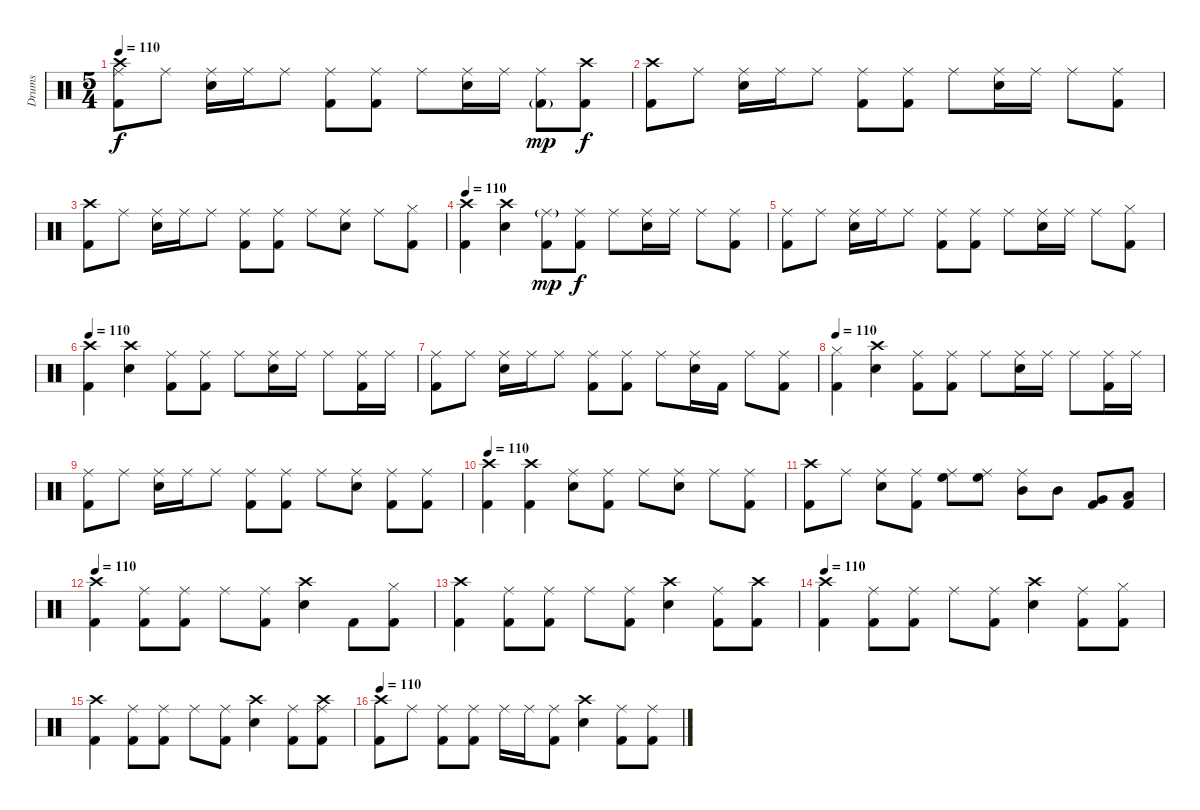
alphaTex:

\track ("Drums" "Drums") {instrument percussion}
\staff {score}
\articulation defaults
\ts (5 4)
\tempo 110
\clef neutral
\ks c
("Crash high (hit)" "Ride (middle)" "Kick (hit) 2").8{dy f} "Ride (middle)".8 ("Ride (middle)" "Snare (hit) 2").16 "Ride (middle)".16 "Ride (middle)".8 ("Ride (middle)" "Kick (hit) 2").8 ("Ride (middle)" "Kick (hit) 2").8 "Ride (middle)".8 ("Ride (middle)" "Snare (hit) 2").16 "Ride (middle)".16 ("Ride (middle)" "Kick (hit) 2"{g}).8{dy mp} ("Crash high (hit)" "Kick (hit) 2").8{dy f} |
("Crash high (hit)" "Kick (hit) 2").8 "Ride (middle)".8 ("Ride (middle)" "Snare (hit) 2").16 "Ride (middle)".16 "Ride (middle)".8 ("Ride (middle)" "Kick (hit) 2").8 ("Ride (middle)" "Kick (hit) 2").8 "Ride (middle)".8 ("Ride (middle)" "Snare (hit) 2").16 "Ride (middle)".16 "Ride (middle)".8 ("Ride (middle)" "Kick (hit) 2").8 |
("Crash high (hit)" "Kick (hit) 2").8 "Ride (middle)".8 ("Ride (middle)" "Snare (hit) 2").16 "Ride (middle)".16 "Ride (middle)".8 ("Ride (middle)" "Kick (hit) 2").8 ("Ride (middle)" "Kick (hit) 2").8 "Ride (middle)".8 ("Ride (middle)" "Snare (hit) 2").8 "Ride (middle)".8 ("Hi-Hat (closed)" "Kick (hit) 2").8 |
\tempo 110
("Crash high (hit)" "Kick (hit) 2").4 ("Crash high (hit)" "Snare (hit) 2").4 ("Ride (middle)"{g} "Kick (hit) 2").8{dy mp} ("Ride (middle)" "Kick (hit) 2").8{dy f} "Ride (middle)".8 ("Ride (middle)" "Snare (hit) 2").16 "Ride (middle)".16 "Ride (middle)".8 ("Ride (middle)" "Kick (hit) 2").8 |
("Ride (middle)" "Kick (hit) 2").8 "Ride (middle)".8 ("Ride (middle)" "Snare (hit) 2").16 "Ride (middle)".16 "Ride (middle)".8 ("Ride (middle)" "Kick (hit) 2").8 ("Ride (middle)" "Kick (hit) 2").8 "Ride (middle)".8 ("Ride (middle)" "Snare (hit) 2").16 "Ride (middle)".16 "Ride (middle)".8 ("Hi-Hat (closed)" "Kick (hit) 2").8 |
\tempo 110
("Crash high (hit)" "Kick (hit) 2").4 ("Crash high (hit)" "Snare (hit) 2").4 ("Ride (middle)" "Kick (hit) 2").8 ("Ride (middle)" "Kick (hit) 2").8 "Ride (middle)".8 ("Ride (middle)" "Snare (hit) 2").16 "Ride (middle)".16 "Ride (middle)".8 ("Ride (middle)" "Kick (hit) 2").16 "Ride (middle)".16 |
("Ride (middle)" "Kick (hit) 2").8 "Ride (middle)".8 ("Ride (middle)" "Snare (hit) 2").16 "Ride (middle)".16 "Ride (middle)".8 ("Ride (middle)" "Kick (hit) 2").8 ("Ride (middle)" "Kick (hit) 2").8 "Ride (middle)".8 ("Ride (middle)" "Snare (hit) 2").16 "Kick (hit) 2".16 "Ride (middle)".8 ("Ride (middle)" "Kick (hit) 2").8 |
\tempo 110
("Hi-Hat (closed)" "Kick (hit) 2").4 ("Crash high (hit)" "Snare (hit) 2").4 ("Ride (middle)" "Kick (hit) 2").8 ("Ride (middle)" "Kick (hit) 2").8 "Ride (middle)".8 ("Ride (middle)" "Snare (hit) 2").16 "Ride (middle)".16 "Ride (middle)".8 ("Ride (middle)" "Kick (hit) 2").16 "Ride (middle)".16 |
("Ride (middle)" "Kick (hit) 2").8 "Ride (middle)".8 ("Ride (middle)" "Snare (hit) 2").16 "Ride (middle)".16 "Ride (middle)".8 ("Ride (middle)" "Kick (hit) 2").8 ("Ride (middle)" "Kick (hit) 2").8 "Ride (middle)".8 ("Ride (middle)" "Snare (hit) 2").8 ("Ride (middle)" "Kick (hit) 2").8 ("Ride (middle)" "Kick (hit) 2").8 |
\tempo 110
("Crash high (hit)" "Kick (hit) 2").4 ("Crash high (hit)" "Kick (hit) 2").4 ("Ride (middle)" "Snare (hit) 2").8 ("Ride (middle)" "Kick (hit) 2").8 "Ride (middle)".8 ("Snare (hit) 2" "Ride (middle)").8 "Ride (middle)".8 ("Ride (middle)" "Kick (hit) 2").8 |
("Crash high (hit)" "Kick (hit) 2").8 "Ride (middle)".8 ("Ride (middle)" "Snare (hit) 2").8 ("Ride (middle)" "Kick (hit) 2").8 ("Ride (middle)" "High Floor Tom (hit)").8 ("Ride (middle)" "High Floor Tom (hit)").8 ("Ride (middle)" "Mid Tom (hit)").8 "Mid Tom (hit)".8 ("Very Low Tom (hit)" "Kick (hit) 2").8 ("Low Floor Tom (hit)" "Kick (hit) 2").8 |
\tempo 110
("Crash high (hit)" "Kick (hit) 2").4 ("Ride (middle)" "Kick (hit) 2").8 ("Ride (middle)" "Kick (hit) 2").8 "Ride (middle)".8 ("Ride (middle)" "Kick (hit) 2").8 ("Crash high (hit)" "Snare (hit) 2").4 "Kick (hit) 2".8 ("Hi-Hat (closed)" "Kick (hit) 2").8 |
("Crash high (hit)" "Kick (hit) 2").4 ("Ride (middle)" "Kick (hit) 2").8 ("Ride (middle)" "Kick (hit) 2").8 "Ride (middle)".8 ("Ride (middle)" "Kick (hit) 2").8 ("Crash high (hit)" "Snare (hit) 2").4 ("Ride (middle)" "Kick (hit) 2").8 ("Crash high (hit)" "Kick (hit) 2").8 |
\tempo 110
("Crash high (hit)" "Kick (hit) 2").4 ("Ride (middle)" "Kick (hit) 2").8 ("Ride (middle)" "Kick (hit) 2").8 "Ride (middle)".8 ("Ride (middle)" "Kick (hit) 2").8 ("Crash high (hit)" "Snare (hit) 2").4 ("Ride (middle)" "Kick (hit) 2").8 ("Hi-Hat (closed)" "Kick (hit) 2").8 |
("Crash high (hit)" "Kick (hit) 2").4 ("Ride (middle)" "Kick (hit) 2").8 ("Ride (middle)" "Kick (hit) 2").8 "Ride (middle)".8 ("Ride (middle)" "Kick (hit) 2").8 ("Crash high (hit)" "Snare (hit) 2").4 ("Ride (middle)" "Kick (hit) 2").8 ("Crash high (hit)" "Ride (middle)" "Kick (hit) 2").8 |
\tempo 110
("Crash high (hit)" "Kick (hit) 2").8 "Ride (middle)".8 ("Ride (middle)" "Kick (hit) 2").8 ("Ride (middle)" "Kick (hit) 2").8 "Ride (middle)".16 "Ride (middle)".16 ("Ride (middle)" "Kick (hit) 2").8 ("Crash high (hit)" "Snare (hit) 2").4 ("Ride (middle)" "Kick (hit) 2").8 ("Ride (middle)" "Kick (hit) 2").8
